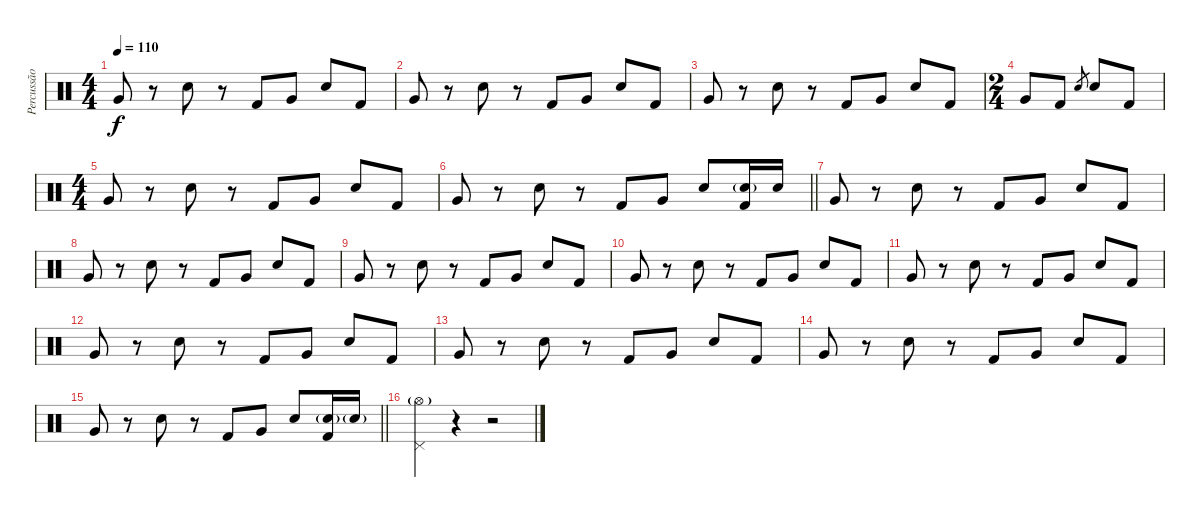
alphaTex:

\track ("Percussão" "Percussão") {instrument percussion}
\staff {score}
\articulation defaults
\ts (4 4)
\tempo 110
\clef neutral
\ks c "Very Low Tom (hit)".8{dy f}
r.8 "Electric Snare (hit)".8 r.8 "Kick (hit) 2".8 "Very Low Tom (hit)".8 "Electric Snare (hit)".8 "Kick (hit) 2".8 |
"Very Low Tom (hit)".8 r.8 "Electric Snare (hit)".8 r.8 "Kick (hit) 2".8 "Very Low Tom (hit)".8 "Electric Snare (hit)".8 "Kick (hit) 2".8 |
"Very Low Tom (hit)".8 r.8 "Electric Snare (hit)".8 r.8 "Kick (hit) 2".8 "Very Low Tom (hit)".8 "Electric Snare (hit)".8 "Kick (hit) 2".8 |
\ts (2 4)
"Very Low Tom (hit)".8 "Kick (hit) 2".8 "Electric Snare (hit)".8{gr} "Electric Snare (hit)".8 "Kick (hit) 2".8 |
\ts (4 4)
"Very Low Tom (hit)".8 r.8 "Electric Snare (hit)".8 r.8 "Kick (hit) 2".8 "Very Low Tom (hit)".8 "Electric Snare (hit)".8 "Kick (hit) 2".8 |
\barLineRight lightlight "Very Low Tom (hit)".8
r.8 "Electric Snare (hit)".8 r.8 "Kick (hit) 2".8 "Very Low Tom (hit)".8 "Electric Snare (hit)".8 ("Electric Snare (hit)"{g} "Kick (hit) 2").16 "Electric Snare (hit)".16 |
"Very Low Tom (hit)".8 r.8 "Electric Snare (hit)".8 r.8 "Kick (hit) 2".8 "Very Low Tom (hit)".8 "Electric Snare (hit)".8 "Kick (hit) 2".8 |
"Very Low Tom (hit)".8 r.8 "Electric Snare (hit)".8 r.8 "Kick (hit) 2".8 "Very Low Tom (hit)".8 "Electric Snare (hit)".8 "Kick (hit) 2".8 |
"Very Low Tom (hit)".8 r.8 "Electric Snare (hit)".8 r.8 "Kick (hit) 2".8 "Very Low Tom (hit)".8 "Electric Snare (hit)".8 "Kick (hit) 2".8 |
"Very Low Tom (hit)".8 r.8 "Electric Snare (hit)".8 r.8 "Kick (hit) 2".8 "Very Low Tom (hit)".8 "Electric Snare (hit)".8 "Kick (hit) 2".8 |
"Very Low Tom (hit)".8 r.8 "Electric Snare (hit)".8 r.8 "Kick (hit) 2".8 "Very Low Tom (hit)".8 "Electric Snare (hit)".8 "Kick (hit) 2".8 |
"Very Low Tom (hit)".8 r.8 "Electric Snare (hit)".8 r.8 "Kick (hit) 2".8 "Very Low Tom (hit)".8 "Electric Snare (hit)".8 "Kick (hit) 2".8 |
"Very Low Tom (hit)".8 r.8 "Electric Snare (hit)".8 r.8 "Kick (hit) 2".8 "Very Low Tom (hit)".8 "Electric Snare (hit)".8 "Kick (hit) 2".8 |
"Very Low Tom (hit)".8 r.8 "Electric Snare (hit)".8 r.8 "Kick (hit) 2".8 "Very Low Tom (hit)".8 "Electric Snare (hit)".8 "Kick (hit) 2".8 |
\barLineRight lightlight "Very Low Tom (hit)".8
r.8 "Electric Snare (hit)".8 r.8 "Kick (hit) 2".8 "Very Low Tom (hit)".8 "Electric Snare (hit)".8 ("Kick (hit) 2" "Electric Snare (hit)"{g}).16 "Electric Snare (hit)"{g}.16 |
("Pedal Hi-Hat (hit)" "Hi-Hat (open)"{g}).4 r.4 r.2
